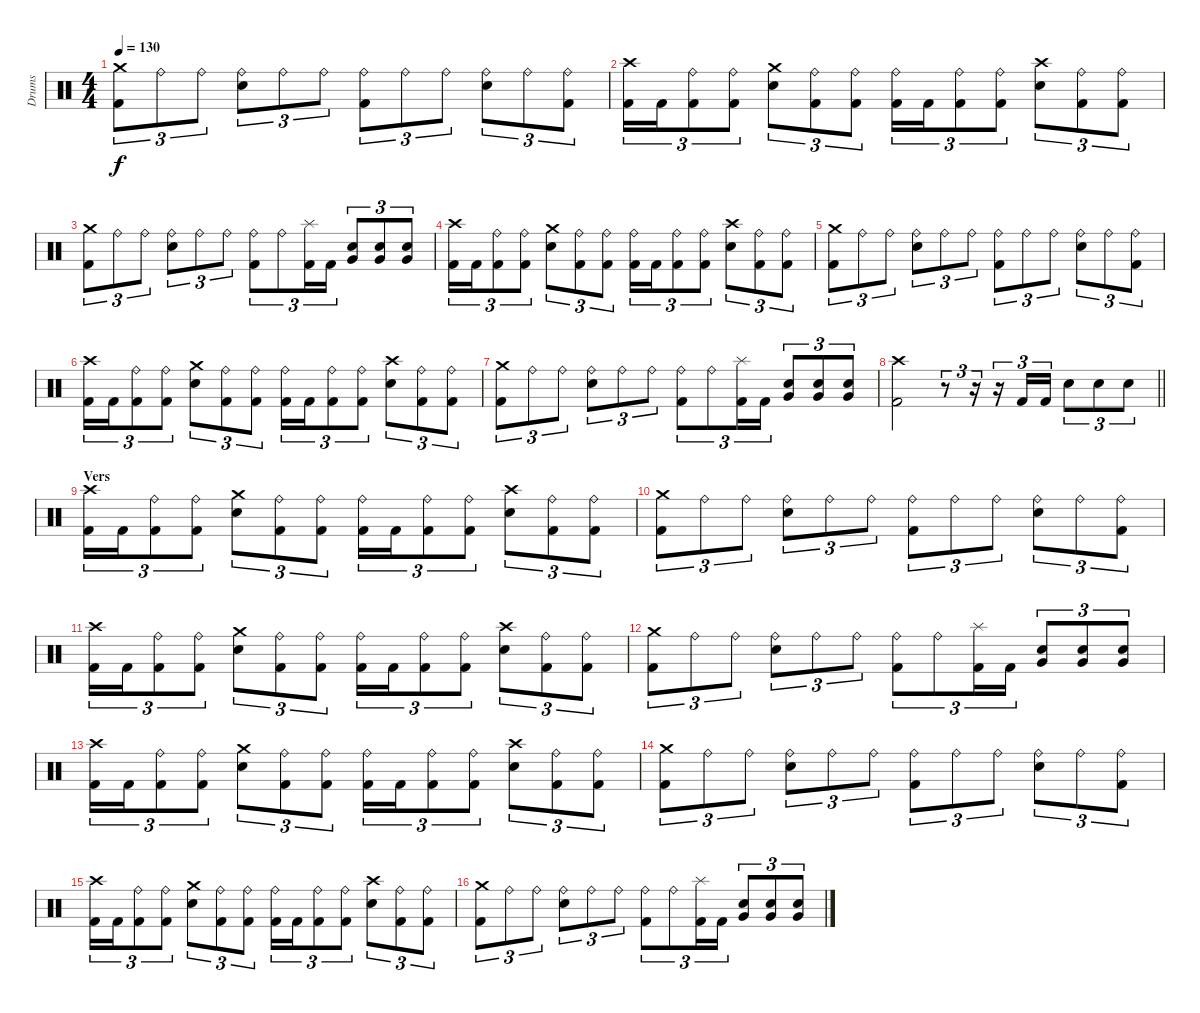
\track ("Drums" "Drums") {instrument percussion}
\staff {score}
\articulation defaults
\ts (4 4)
\tempo 130
\clef neutral
\ks c
("Crash medium (hit)" "Kick (hit) 2").8{tu (3 2) dy f} "Ride (bell)".8{tu (3 2)} "Ride (bell)".8{tu (3 2)} ("Ride (bell)" "Snare (hit) 2").8{tu (3 2)} "Ride (bell)".8{tu (3 2)} "Ride (bell)".8{tu (3 2)} ("Ride (bell)" "Kick (hit) 2").8{tu (3 2)} "Ride (bell)".8{tu (3 2)} "Ride (bell)".8{tu (3 2)} ("Ride (bell)" "Snare (hit) 2").8{tu (3 2)} "Ride (bell)".8{tu (3 2)} ("Ride (bell)" "Kick (hit) 2").8{tu (3 2)} |
("Crash high (hit)" "Kick (hit) 2").16{tu (3 2)} "Kick (hit) 2".16{tu (3 2)} ("Ride (bell)" "Kick (hit) 2").8{tu (3 2)} ("Ride (bell)" "Kick (hit) 2").8{tu (3 2)} ("Crash medium (hit)" "Snare (hit) 2").8{tu (3 2)} ("Ride (bell)" "Kick (hit) 2").8{tu (3 2)} ("Ride (bell)" "Kick (hit) 2").8{tu (3 2)} ("Ride (bell)" "Kick (hit) 2").16{tu (3 2)} "Kick (hit) 2".16{tu (3 2)} ("Ride (bell)" "Kick (hit) 2").8{tu (3 2)} ("Ride (bell)" "Kick (hit) 2").8{tu (3 2)} ("Crash high (hit)" "Snare (hit) 2").8{tu (3 2)} ("Ride (bell)" "Kick (hit) 2").8{tu (3 2)} ("Ride (bell)" "Kick (hit) 2").8{tu (3 2)} |
("Crash medium (hit)" "Kick (hit) 2").8{tu (3 2)} "Ride (bell)".8{tu (3 2)} "Ride (bell)".8{tu (3 2)} ("Ride (bell)" "Snare (hit) 2").8{tu (3 2)} "Ride (bell)".8{tu (3 2)} "Ride (bell)".8{tu (3 2)} ("Ride (bell)" "Kick (hit) 2").8{tu (3 2)} "Ride (bell)".8{tu (3 2)} ("Splash (hit)" "Kick (hit) 2").16{tu (3 2)} "Kick (hit) 2".16{tu (3 2)} ("Very Low Tom (hit)" "Snare (hit) 2").8{tu (3 2)} ("Very Low Tom (hit)" "Snare (hit) 2").8{tu (3 2)} ("Very Low Tom (hit)" "Snare (hit) 2").8{tu (3 2)} |
("Crash high (hit)" "Kick (hit) 2").16{tu (3 2)} "Kick (hit) 2".16{tu (3 2)} ("Ride (bell)" "Kick (hit) 2").8{tu (3 2)} ("Ride (bell)" "Kick (hit) 2").8{tu (3 2)} ("Crash medium (hit)" "Snare (hit) 2").8{tu (3 2)} ("Ride (bell)" "Kick (hit) 2").8{tu (3 2)} ("Ride (bell)" "Kick (hit) 2").8{tu (3 2)} ("Ride (bell)" "Kick (hit) 2").16{tu (3 2)} "Kick (hit) 2".16{tu (3 2)} ("Ride (bell)" "Kick (hit) 2").8{tu (3 2)} ("Ride (bell)" "Kick (hit) 2").8{tu (3 2)} ("Crash high (hit)" "Snare (hit) 2").8{tu (3 2)} ("Ride (bell)" "Kick (hit) 2").8{tu (3 2)} ("Ride (bell)" "Kick (hit) 2").8{tu (3 2)} |
("Crash medium (hit)" "Kick (hit) 2").8{tu (3 2)} "Ride (bell)".8{tu (3 2)} "Ride (bell)".8{tu (3 2)} ("Ride (bell)" "Snare (hit) 2").8{tu (3 2)} "Ride (bell)".8{tu (3 2)} "Ride (bell)".8{tu (3 2)} ("Ride (bell)" "Kick (hit) 2").8{tu (3 2)} "Ride (bell)".8{tu (3 2)} "Ride (bell)".8{tu (3 2)} ("Ride (bell)" "Snare (hit) 2").8{tu (3 2)} "Ride (bell)".8{tu (3 2)} ("Ride (bell)" "Kick (hit) 2").8{tu (3 2)} |
("Crash high (hit)" "Kick (hit) 2").16{tu (3 2)} "Kick (hit) 2".16{tu (3 2)} ("Ride (bell)" "Kick (hit) 2").8{tu (3 2)} ("Ride (bell)" "Kick (hit) 2").8{tu (3 2)} ("Crash medium (hit)" "Snare (hit) 2").8{tu (3 2)} ("Ride (bell)" "Kick (hit) 2").8{tu (3 2)} ("Ride (bell)" "Kick (hit) 2").8{tu (3 2)} ("Ride (bell)" "Kick (hit) 2").16{tu (3 2)} "Kick (hit) 2".16{tu (3 2)} ("Ride (bell)" "Kick (hit) 2").8{tu (3 2)} ("Ride (bell)" "Kick (hit) 2").8{tu (3 2)} ("Crash high (hit)" "Snare (hit) 2").8{tu (3 2)} ("Ride (bell)" "Kick (hit) 2").8{tu (3 2)} ("Ride (bell)" "Kick (hit) 2").8{tu (3 2)} |
("Crash medium (hit)" "Kick (hit) 2").8{tu (3 2)} "Ride (bell)".8{tu (3 2)} "Ride (bell)".8{tu (3 2)} ("Ride (bell)" "Snare (hit) 2").8{tu (3 2)} "Ride (bell)".8{tu (3 2)} "Ride (bell)".8{tu (3 2)} ("Ride (bell)" "Kick (hit) 2").8{tu (3 2)} "Ride (bell)".8{tu (3 2)} ("Splash (hit)" "Kick (hit) 2").16{tu (3 2)} "Kick (hit) 2".16{tu (3 2)} ("Very Low Tom (hit)" "Snare (hit) 2").8{tu (3 2)} ("Very Low Tom (hit)" "Snare (hit) 2").8{tu (3 2)} ("Very Low Tom (hit)" "Snare (hit) 2").8{tu (3 2)} |
\barLineRight lightlight
("Crash high (hit)" "Kick (hit) 2").2 r.8{tu (3 2)} r.16{tu (3 2)} r.16{tu (3 2)} "Kick (hit) 2".16{tu (3 2)} "Kick (hit) 2".16{tu (3 2)} "Snare (hit) 2".8{tu (3 2)} "Snare (hit) 2".8{tu (3 2)} "Snare (hit) 2".8{tu (3 2)} |
\section ("" "Vers")
("Crash high (hit)" "Kick (hit) 2").16{tu (3 2)} "Kick (hit) 2".16{tu (3 2)} ("Ride (bell)" "Kick (hit) 2").8{tu (3 2)} ("Ride (bell)" "Kick (hit) 2").8{tu (3 2)} ("Crash medium (hit)" "Snare (hit) 2").8{tu (3 2)} ("Ride (bell)" "Kick (hit) 2").8{tu (3 2)} ("Ride (bell)" "Kick (hit) 2").8{tu (3 2)} ("Ride (bell)" "Kick (hit) 2").16{tu (3 2)} "Kick (hit) 2".16{tu (3 2)} ("Ride (bell)" "Kick (hit) 2").8{tu (3 2)} ("Ride (bell)" "Kick (hit) 2").8{tu (3 2)} ("Crash high (hit)" "Snare (hit) 2").8{tu (3 2)} ("Ride (bell)" "Kick (hit) 2").8{tu (3 2)} ("Ride (bell)" "Kick (hit) 2").8{tu (3 2)} |
("Crash medium (hit)" "Kick (hit) 2").8{tu (3 2)} "Ride (bell)".8{tu (3 2)} "Ride (bell)".8{tu (3 2)} ("Ride (bell)" "Snare (hit) 2").8{tu (3 2)} "Ride (bell)".8{tu (3 2)} "Ride (bell)".8{tu (3 2)} ("Ride (bell)" "Kick (hit) 2").8{tu (3 2)} "Ride (bell)".8{tu (3 2)} "Ride (bell)".8{tu (3 2)} ("Ride (bell)" "Snare (hit) 2").8{tu (3 2)} "Ride (bell)".8{tu (3 2)} ("Ride (bell)" "Kick (hit) 2").8{tu (3 2)} |
("Crash high (hit)" "Kick (hit) 2").16{tu (3 2)} "Kick (hit) 2".16{tu (3 2)} ("Ride (bell)" "Kick (hit) 2").8{tu (3 2)} ("Ride (bell)" "Kick (hit) 2").8{tu (3 2)} ("Crash medium (hit)" "Snare (hit) 2").8{tu (3 2)} ("Ride (bell)" "Kick (hit) 2").8{tu (3 2)} ("Ride (bell)" "Kick (hit) 2").8{tu (3 2)} ("Ride (bell)" "Kick (hit) 2").16{tu (3 2)} "Kick (hit) 2".16{tu (3 2)} ("Ride (bell)" "Kick (hit) 2").8{tu (3 2)} ("Ride (bell)" "Kick (hit) 2").8{tu (3 2)} ("Crash high (hit)" "Snare (hit) 2").8{tu (3 2)} ("Ride (bell)" "Kick (hit) 2").8{tu (3 2)} ("Ride (bell)" "Kick (hit) 2").8{tu (3 2)} |
("Crash medium (hit)" "Kick (hit) 2").8{tu (3 2)} "Ride (bell)".8{tu (3 2)} "Ride (bell)".8{tu (3 2)} ("Ride (bell)" "Snare (hit) 2").8{tu (3 2)} "Ride (bell)".8{tu (3 2)} "Ride (bell)".8{tu (3 2)} ("Ride (bell)" "Kick (hit) 2").8{tu (3 2)} "Ride (bell)".8{tu (3 2)} ("Splash (hit)" "Kick (hit) 2").16{tu (3 2)} "Kick (hit) 2".16{tu (3 2)} ("Very Low Tom (hit)" "Snare (hit) 2").8{tu (3 2)} ("Very Low Tom (hit)" "Snare (hit) 2").8{tu (3 2)} ("Very Low Tom (hit)" "Snare (hit) 2").8{tu (3 2)} |
("Crash high (hit)" "Kick (hit) 2").16{tu (3 2)} "Kick (hit) 2".16{tu (3 2)} ("Ride (bell)" "Kick (hit) 2").8{tu (3 2)} ("Ride (bell)" "Kick (hit) 2").8{tu (3 2)} ("Crash medium (hit)" "Snare (hit) 2").8{tu (3 2)} ("Ride (bell)" "Kick (hit) 2").8{tu (3 2)} ("Ride (bell)" "Kick (hit) 2").8{tu (3 2)} ("Ride (bell)" "Kick (hit) 2").16{tu (3 2)} "Kick (hit) 2".16{tu (3 2)} ("Ride (bell)" "Kick (hit) 2").8{tu (3 2)} ("Ride (bell)" "Kick (hit) 2").8{tu (3 2)} ("Crash high (hit)" "Snare (hit) 2").8{tu (3 2)} ("Ride (bell)" "Kick (hit) 2").8{tu (3 2)} ("Ride (bell)" "Kick (hit) 2").8{tu (3 2)} |
("Crash medium (hit)" "Kick (hit) 2").8{tu (3 2)} "Ride (bell)".8{tu (3 2)} "Ride (bell)".8{tu (3 2)} ("Ride (bell)" "Snare (hit) 2").8{tu (3 2)} "Ride (bell)".8{tu (3 2)} "Ride (bell)".8{tu (3 2)} ("Ride (bell)" "Kick (hit) 2").8{tu (3 2)} "Ride (bell)".8{tu (3 2)} "Ride (bell)".8{tu (3 2)} ("Ride (bell)" "Snare (hit) 2").8{tu (3 2)} "Ride (bell)".8{tu (3 2)} ("Ride (bell)" "Kick (hit) 2").8{tu (3 2)} |
("Crash high (hit)" "Kick (hit) 2").16{tu (3 2)} "Kick (hit) 2".16{tu (3 2)} ("Ride (bell)" "Kick (hit) 2").8{tu (3 2)} ("Ride (bell)" "Kick (hit) 2").8{tu (3 2)} ("Crash medium (hit)" "Snare (hit) 2").8{tu (3 2)} ("Ride (bell)" "Kick (hit) 2").8{tu (3 2)} ("Ride (bell)" "Kick (hit) 2").8{tu (3 2)} ("Ride (bell)" "Kick (hit) 2").16{tu (3 2)} "Kick (hit) 2".16{tu (3 2)} ("Ride (bell)" "Kick (hit) 2").8{tu (3 2)} ("Ride (bell)" "Kick (hit) 2").8{tu (3 2)} ("Crash high (hit)" "Snare (hit) 2").8{tu (3 2)} ("Ride (bell)" "Kick (hit) 2").8{tu (3 2)} ("Ride (bell)" "Kick (hit) 2").8{tu (3 2)} |
("Crash medium (hit)" "Kick (hit) 2").8{tu (3 2)} "Ride (bell)".8{tu (3 2)} "Ride (bell)".8{tu (3 2)} ("Ride (bell)" "Snare (hit) 2").8{tu (3 2)} "Ride (bell)".8{tu (3 2)} "Ride (bell)".8{tu (3 2)} ("Ride (bell)" "Kick (hit) 2").8{tu (3 2)} "Ride (bell)".8{tu (3 2)} ("Splash (hit)" "Kick (hit) 2").16{tu (3 2)} "Kick (hit) 2".16{tu (3 2)} ("Very Low Tom (hit)" "Snare (hit) 2").8{tu (3 2)} ("Very Low Tom (hit)" "Snare (hit) 2").8{tu (3 2)} ("Very Low Tom (hit)" "Snare (hit) 2").8{tu (3 2)}
